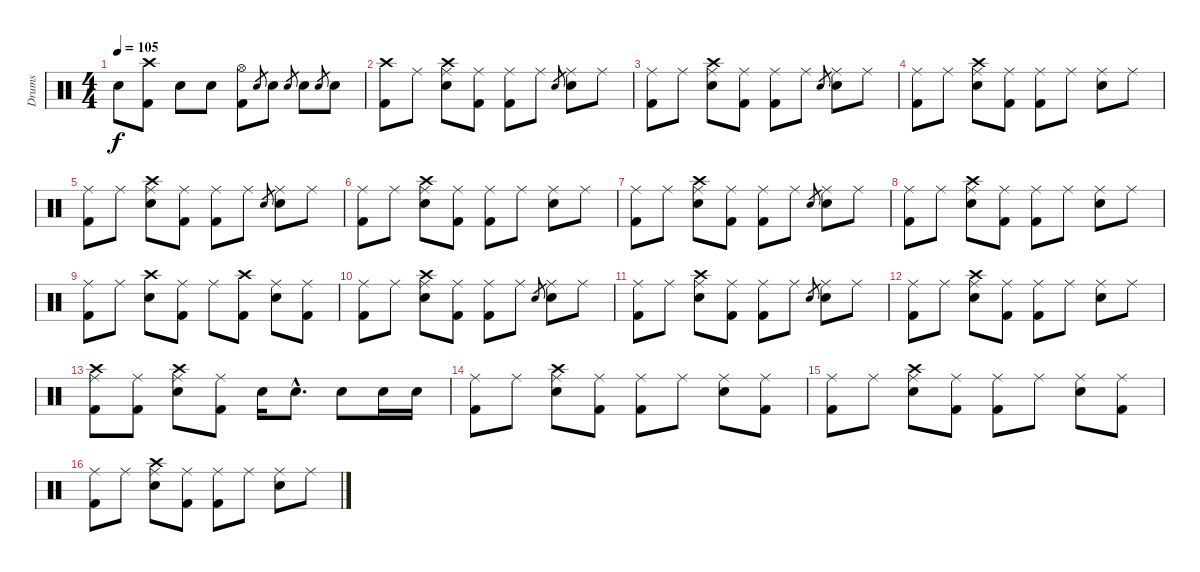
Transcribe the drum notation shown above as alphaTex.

\track ("Drums" "Drums") {instrument percussion}
\staff {score}
\articulation defaults
\ts (4 4)
\tempo 105
\clef neutral
\ks c "Electric Snare (hit)".8{dy f}
("Crash high (hit)" "Kick (hit) 2").8 "Electric Snare (hit)".8 "Electric Snare (hit)".8 ("Hi-Hat (open)" "Kick (hit) 2").8 "Electric Snare (hit)".8{gr} "Electric Snare (hit)".8 "Electric Snare (hit)".8{gr} "Electric Snare (hit)".8 "Electric Snare (hit)".8{gr} "Electric Snare (hit)".8 |
("Crash high (hit)" "Kick (hit) 2").8 "Ride (middle)".8 ("Crash high (hit)" "Ride (middle)" "Electric Snare (hit)").8 ("Ride (middle)" "Kick (hit) 2").8 ("Ride (middle)" "Kick (hit) 2").8 "Ride (middle)".8 "Electric Snare (hit)".8{gr} ("Ride (middle)" "Electric Snare (hit)").8 "Ride (middle)".8 |
("Ride (middle)" "Kick (hit) 2").8 "Ride (middle)".8 ("Crash high (hit)" "Ride (middle)" "Electric Snare (hit)").8 ("Ride (middle)" "Kick (hit) 2").8 ("Ride (middle)" "Kick (hit) 2").8 "Ride (middle)".8 "Electric Snare (hit)".8{gr} ("Ride (middle)" "Electric Snare (hit)").8 "Ride (middle)".8 |
("Ride (middle)" "Kick (hit) 2").8 "Ride (middle)".8 ("Crash high (hit)" "Ride (middle)" "Electric Snare (hit)").8 ("Ride (middle)" "Kick (hit) 2").8 ("Ride (middle)" "Kick (hit) 2").8 "Ride (middle)".8 ("Ride (middle)" "Electric Snare (hit)").8 "Ride (middle)".8 |
("Ride (middle)" "Kick (hit) 2").8 "Ride (middle)".8 ("Crash high (hit)" "Ride (middle)" "Electric Snare (hit)").8 ("Ride (middle)" "Kick (hit) 2").8 ("Ride (middle)" "Kick (hit) 2").8 "Ride (middle)".8 "Electric Snare (hit)".8{gr} ("Ride (middle)" "Electric Snare (hit)").8 "Ride (middle)".8 |
("Ride (middle)" "Kick (hit) 2").8 "Ride (middle)".8 ("Crash high (hit)" "Ride (middle)" "Electric Snare (hit)").8 ("Ride (middle)" "Kick (hit) 2").8 ("Ride (middle)" "Kick (hit) 2").8 "Ride (middle)".8 ("Ride (middle)" "Electric Snare (hit)").8 "Ride (middle)".8 |
("Ride (middle)" "Kick (hit) 2").8 "Ride (middle)".8 ("Crash high (hit)" "Ride (middle)" "Electric Snare (hit)").8 ("Ride (middle)" "Kick (hit) 2").8 ("Ride (middle)" "Kick (hit) 2").8 "Ride (middle)".8 "Electric Snare (hit)".8{gr} ("Ride (middle)" "Electric Snare (hit)").8 "Ride (middle)".8 |
("Ride (middle)" "Kick (hit) 2").8 "Ride (middle)".8 ("Crash high (hit)" "Ride (middle)" "Electric Snare (hit)").8 ("Ride (middle)" "Kick (hit) 2").8 ("Ride (middle)" "Kick (hit) 2").8 "Ride (middle)".8 ("Ride (middle)" "Electric Snare (hit)").8 "Ride (middle)".8 |
("Ride (middle)" "Kick (hit) 2").8 "Ride (middle)".8 ("Crash high (hit)" "Electric Snare (hit)").8 ("Ride (middle)" "Kick (hit) 2").8 "Ride (middle)".8 ("Crash high (hit)" "Kick (hit) 2").8 ("Ride (middle)" "Electric Snare (hit)").8 ("Ride (middle)" "Kick (hit) 2").8 |
("Ride (middle)" "Kick (hit) 2").8 "Ride (middle)".8 ("Crash high (hit)" "Ride (middle)" "Electric Snare (hit)").8 ("Ride (middle)" "Kick (hit) 2").8 ("Ride (middle)" "Kick (hit) 2").8 "Ride (middle)".8 "Electric Snare (hit)".8{gr} ("Ride (middle)" "Electric Snare (hit)").8 "Ride (middle)".8 |
("Ride (middle)" "Kick (hit) 2").8 "Ride (middle)".8 ("Crash high (hit)" "Ride (middle)" "Electric Snare (hit)").8 ("Ride (middle)" "Kick (hit) 2").8 ("Ride (middle)" "Kick (hit) 2").8 "Ride (middle)".8 "Electric Snare (hit)".8{gr} ("Ride (middle)" "Electric Snare (hit)").8 "Ride (middle)".8 |
("Ride (middle)" "Kick (hit) 2").8 "Ride (middle)".8 ("Crash high (hit)" "Ride (middle)" "Electric Snare (hit)").8 ("Ride (middle)" "Kick (hit) 2").8 ("Ride (middle)" "Kick (hit) 2").8 "Ride (middle)".8 ("Ride (middle)" "Electric Snare (hit)").8 "Ride (middle)".8 |
("Crash high (hit)" "Ride (middle)" "Kick (hit) 2").8 ("Ride (middle)" "Kick (hit) 2").8 ("Crash high (hit)" "Ride (middle)" "Electric Snare (hit)").8 ("Ride (middle)" "Kick (hit) 2").8 "Electric Snare (hit)".16 "Electric Snare (hit)"{hac}.8{d} "Electric Snare (hit)".8 "Electric Snare (hit)".16 "Electric Snare (hit)".16 |
("Ride (middle)" "Kick (hit) 2").8 "Ride (middle)".8 ("Crash high (hit)" "Ride (middle)" "Electric Snare (hit)").8 ("Ride (middle)" "Kick (hit) 2").8 ("Ride (middle)" "Kick (hit) 2").8 "Ride (middle)".8 ("Ride (middle)" "Electric Snare (hit)").8 ("Ride (middle)" "Kick (hit) 2").8 |
("Ride (middle)" "Kick (hit) 2").8 "Ride (middle)".8 ("Crash high (hit)" "Ride (middle)" "Electric Snare (hit)").8 ("Ride (middle)" "Kick (hit) 2").8 ("Ride (middle)" "Kick (hit) 2").8 "Ride (middle)".8 ("Ride (middle)" "Electric Snare (hit)").8 ("Ride (middle)" "Kick (hit) 2").8 |
("Ride (middle)" "Kick (hit) 2").8 "Ride (middle)".8 ("Crash high (hit)" "Ride (middle)" "Electric Snare (hit)").8 ("Ride (middle)" "Kick (hit) 2").8 ("Ride (middle)" "Kick (hit) 2").8 "Ride (middle)".8 ("Ride (middle)" "Electric Snare (hit)").8 "Ride (middle)".8
